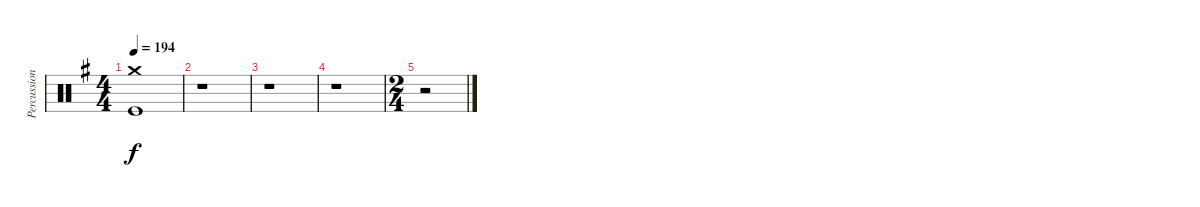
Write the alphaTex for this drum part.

\track ("Percussion" "Percussion") {instrument percussion}
\staff {score}
\articulation defaults
\ts (4 4)
\tempo 194
\clef neutral
\ks g
("Crash medium (hit)" "Kick (hit)").1{dy f} |
r.1 |
r.1 |
r.1 |
\ts (2 4)
r.2
